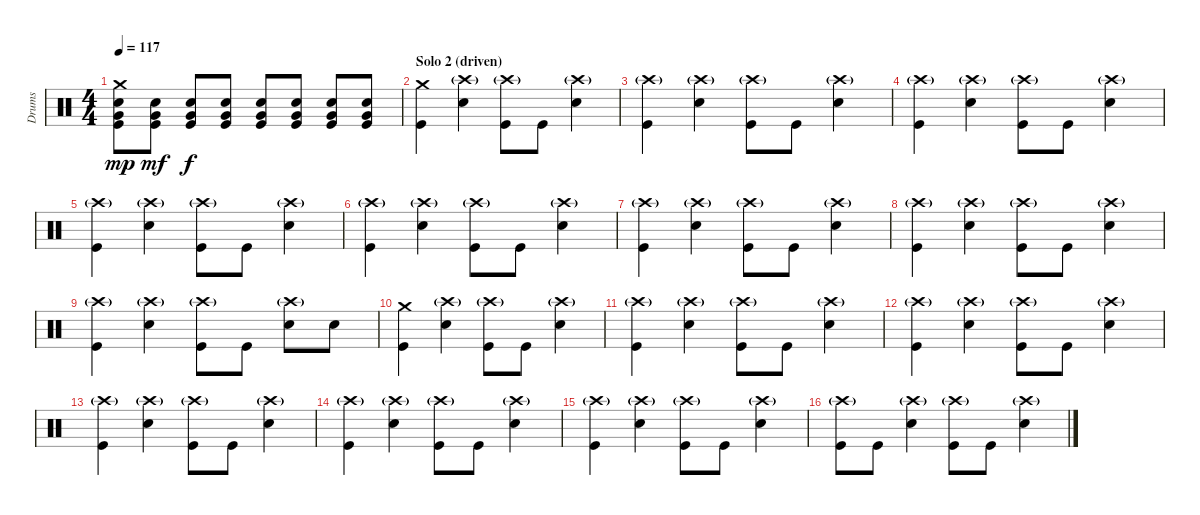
\track ("Drums" "Drums") {instrument percussion}
\staff {score}
\articulation defaults
\ts (4 4)
\tempo 117
\clef neutral
\ks c
("Crash medium (hit)" "Very Low Tom (hit)" "Electric Snare (hit)" "Kick (hit)").8{dy mp} ("Very Low Tom (hit)" "Electric Snare (hit)" "Kick (hit)").8{dy mf} ("Very Low Tom (hit)" "Electric Snare (hit)" "Kick (hit)").8{dy f} ("Very Low Tom (hit)" "Electric Snare (hit)" "Kick (hit)").8 ("Very Low Tom (hit)" "Electric Snare (hit)" "Kick (hit)").8 ("Very Low Tom (hit)" "Electric Snare (hit)" "Kick (hit)").8 ("Very Low Tom (hit)" "Electric Snare (hit)" "Kick (hit)").8 ("Very Low Tom (hit)" "Electric Snare (hit)" "Kick (hit)").8 |
\section ("" "Solo 2 (driven)")
("Crash medium (hit)" "Kick (hit)").4 ("Crash high (hit)"{g} "Snare (hit) 2").4 ("Crash high (hit)"{g} "Kick (hit)").8 "Kick (hit)".8 ("Crash high (hit)"{g} "Snare (hit) 2").4 |
("Crash high (hit)"{g} "Kick (hit)").4 ("Crash high (hit)"{g} "Snare (hit) 2").4 ("Crash high (hit)"{g} "Kick (hit)").8 "Kick (hit)".8 ("Crash high (hit)"{g} "Snare (hit) 2").4 |
("Crash high (hit)"{g} "Kick (hit)").4 ("Crash high (hit)"{g} "Snare (hit) 2").4 ("Crash high (hit)"{g} "Kick (hit)").8 "Kick (hit)".8 ("Crash high (hit)"{g} "Snare (hit) 2").4 |
("Crash high (hit)"{g} "Kick (hit)").4 ("Crash high (hit)"{g} "Snare (hit) 2").4 ("Crash high (hit)"{g} "Kick (hit)").8 "Kick (hit)".8 ("Crash high (hit)"{g} "Snare (hit) 2").4 |
("Crash high (hit)"{g} "Kick (hit)").4 ("Crash high (hit)"{g} "Snare (hit) 2").4 ("Crash high (hit)"{g} "Kick (hit)").8 "Kick (hit)".8 ("Crash high (hit)"{g} "Snare (hit) 2").4 |
("Crash high (hit)"{g} "Kick (hit)").4 ("Crash high (hit)"{g} "Snare (hit) 2").4 ("Crash high (hit)"{g} "Kick (hit)").8 "Kick (hit)".8 ("Crash high (hit)"{g} "Snare (hit) 2").4 |
("Crash high (hit)"{g} "Kick (hit)").4 ("Crash high (hit)"{g} "Snare (hit) 2").4 ("Crash high (hit)"{g} "Kick (hit)").8 "Kick (hit)".8 ("Crash high (hit)"{g} "Snare (hit) 2").4 |
("Crash high (hit)"{g} "Kick (hit)").4 ("Crash high (hit)"{g} "Snare (hit) 2").4 ("Crash high (hit)"{g} "Kick (hit)").8 "Kick (hit)".8 ("Crash high (hit)"{g} "Snare (hit) 2").8 "Snare (hit) 2".8 |
("Crash medium (hit)" "Kick (hit)").4 ("Crash high (hit)"{g} "Snare (hit) 2").4 ("Crash high (hit)"{g} "Kick (hit)").8 "Kick (hit)".8 ("Crash high (hit)"{g} "Snare (hit) 2").4 |
("Crash high (hit)"{g} "Kick (hit)").4 ("Crash high (hit)"{g} "Snare (hit) 2").4 ("Crash high (hit)"{g} "Kick (hit)").8 "Kick (hit)".8 ("Crash high (hit)"{g} "Snare (hit) 2").4 |
("Crash high (hit)"{g} "Kick (hit)").4 ("Crash high (hit)"{g} "Snare (hit) 2").4 ("Crash high (hit)"{g} "Kick (hit)").8 "Kick (hit)".8 ("Crash high (hit)"{g} "Snare (hit) 2").4 |
("Crash high (hit)"{g} "Kick (hit)").4 ("Crash high (hit)"{g} "Snare (hit) 2").4 ("Crash high (hit)"{g} "Kick (hit)").8 "Kick (hit)".8 ("Crash high (hit)"{g} "Snare (hit) 2").4 |
("Crash high (hit)"{g} "Kick (hit)").4 ("Crash high (hit)"{g} "Snare (hit) 2").4 ("Crash high (hit)"{g} "Kick (hit)").8 "Kick (hit)".8 ("Crash high (hit)"{g} "Snare (hit) 2").4 |
("Crash high (hit)"{g} "Kick (hit)").4 ("Crash high (hit)"{g} "Snare (hit) 2").4 ("Crash high (hit)"{g} "Kick (hit)").8 "Kick (hit)".8 ("Crash high (hit)"{g} "Snare (hit) 2").4 |
("Crash high (hit)"{g} "Kick (hit)").8 "Kick (hit)".8 ("Crash high (hit)"{g} "Snare (hit) 2").4 ("Crash high (hit)"{g} "Kick (hit)").8 "Kick (hit)".8 ("Crash high (hit)"{g} "Snare (hit) 2").4
